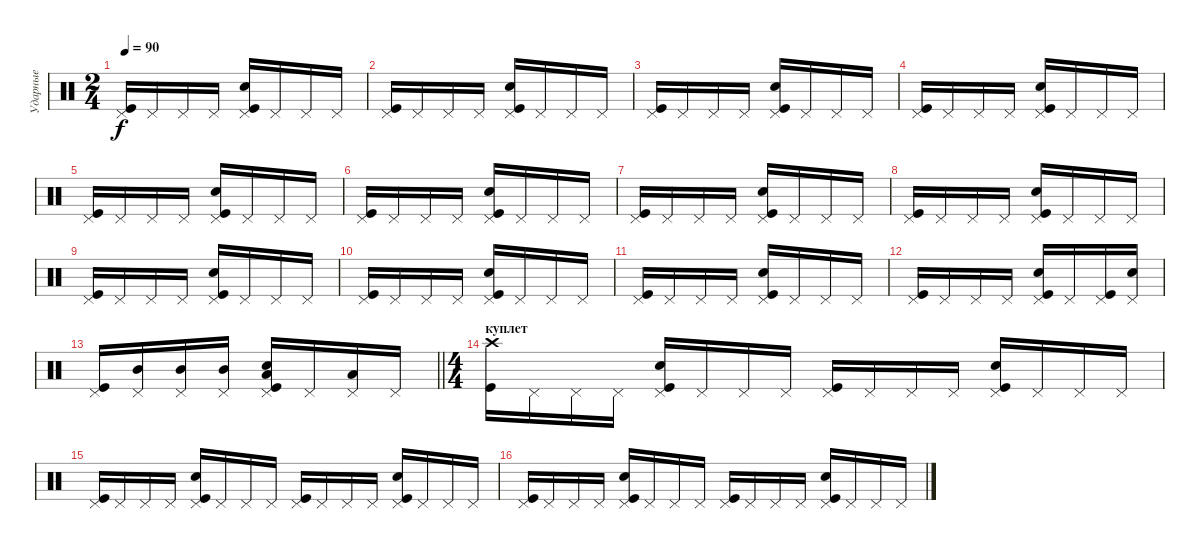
\track ("Ударные" "Ударные") {instrument percussion}
\staff {score}
\articulation defaults
\ts (2 4)
\tempo 90
\clef neutral
\ks c
("Pedal Hi-Hat (hit)" "Kick (hit)").16{dy f} "Pedal Hi-Hat (hit)".16 "Pedal Hi-Hat (hit)".16 "Pedal Hi-Hat (hit)".16 ("Pedal Hi-Hat (hit)" "Kick (hit)" "Snare (hit) 2").16 "Pedal Hi-Hat (hit)".16 "Pedal Hi-Hat (hit)".16 "Pedal Hi-Hat (hit)".16 |
("Pedal Hi-Hat (hit)" "Kick (hit)").16 "Pedal Hi-Hat (hit)".16 "Pedal Hi-Hat (hit)".16 "Pedal Hi-Hat (hit)".16 ("Pedal Hi-Hat (hit)" "Kick (hit)" "Snare (hit) 2").16 "Pedal Hi-Hat (hit)".16 "Pedal Hi-Hat (hit)".16 "Pedal Hi-Hat (hit)".16 |
("Pedal Hi-Hat (hit)" "Kick (hit)").16 "Pedal Hi-Hat (hit)".16 "Pedal Hi-Hat (hit)".16 "Pedal Hi-Hat (hit)".16 ("Pedal Hi-Hat (hit)" "Kick (hit)" "Snare (hit) 2").16 "Pedal Hi-Hat (hit)".16 "Pedal Hi-Hat (hit)".16 "Pedal Hi-Hat (hit)".16 |
("Pedal Hi-Hat (hit)" "Kick (hit)").16 "Pedal Hi-Hat (hit)".16 "Pedal Hi-Hat (hit)".16 "Pedal Hi-Hat (hit)".16 ("Pedal Hi-Hat (hit)" "Kick (hit)" "Snare (hit) 2").16 "Pedal Hi-Hat (hit)".16 "Pedal Hi-Hat (hit)".16 "Pedal Hi-Hat (hit)".16 |
("Pedal Hi-Hat (hit)" "Kick (hit)").16 "Pedal Hi-Hat (hit)".16 "Pedal Hi-Hat (hit)".16 "Pedal Hi-Hat (hit)".16 ("Pedal Hi-Hat (hit)" "Kick (hit)" "Snare (hit) 2").16 "Pedal Hi-Hat (hit)".16 "Pedal Hi-Hat (hit)".16 "Pedal Hi-Hat (hit)".16 |
("Pedal Hi-Hat (hit)" "Kick (hit)").16 "Pedal Hi-Hat (hit)".16 "Pedal Hi-Hat (hit)".16 "Pedal Hi-Hat (hit)".16 ("Pedal Hi-Hat (hit)" "Kick (hit)" "Snare (hit) 2").16 "Pedal Hi-Hat (hit)".16 "Pedal Hi-Hat (hit)".16 "Pedal Hi-Hat (hit)".16 |
("Pedal Hi-Hat (hit)" "Kick (hit)").16 "Pedal Hi-Hat (hit)".16 "Pedal Hi-Hat (hit)".16 "Pedal Hi-Hat (hit)".16 ("Pedal Hi-Hat (hit)" "Kick (hit)" "Snare (hit) 2").16 "Pedal Hi-Hat (hit)".16 "Pedal Hi-Hat (hit)".16 "Pedal Hi-Hat (hit)".16 |
("Pedal Hi-Hat (hit)" "Kick (hit)").16 "Pedal Hi-Hat (hit)".16 "Pedal Hi-Hat (hit)".16 "Pedal Hi-Hat (hit)".16 ("Pedal Hi-Hat (hit)" "Kick (hit)" "Snare (hit) 2").16 "Pedal Hi-Hat (hit)".16 "Pedal Hi-Hat (hit)".16 "Pedal Hi-Hat (hit)".16 |
("Pedal Hi-Hat (hit)" "Kick (hit)").16 "Pedal Hi-Hat (hit)".16 "Pedal Hi-Hat (hit)".16 "Pedal Hi-Hat (hit)".16 ("Pedal Hi-Hat (hit)" "Kick (hit)" "Snare (hit) 2").16 "Pedal Hi-Hat (hit)".16 "Pedal Hi-Hat (hit)".16 "Pedal Hi-Hat (hit)".16 |
("Pedal Hi-Hat (hit)" "Kick (hit)").16 "Pedal Hi-Hat (hit)".16 "Pedal Hi-Hat (hit)".16 "Pedal Hi-Hat (hit)".16 ("Pedal Hi-Hat (hit)" "Kick (hit)" "Snare (hit) 2").16 "Pedal Hi-Hat (hit)".16 "Pedal Hi-Hat (hit)".16 "Pedal Hi-Hat (hit)".16 |
("Pedal Hi-Hat (hit)" "Kick (hit)").16 "Pedal Hi-Hat (hit)".16 "Pedal Hi-Hat (hit)".16 "Pedal Hi-Hat (hit)".16 ("Pedal Hi-Hat (hit)" "Kick (hit)" "Snare (hit) 2").16 "Pedal Hi-Hat (hit)".16 "Pedal Hi-Hat (hit)".16 "Pedal Hi-Hat (hit)".16 |
("Pedal Hi-Hat (hit)" "Kick (hit)").16 "Pedal Hi-Hat (hit)".16 "Pedal Hi-Hat (hit)".16 "Pedal Hi-Hat (hit)".16 ("Pedal Hi-Hat (hit)" "Kick (hit)" "Snare (hit) 2").16 "Pedal Hi-Hat (hit)".16 ("Pedal Hi-Hat (hit)" "Kick (hit)").16 ("Pedal Hi-Hat (hit)" "Snare (hit) 2").16 |
\barLineRight lightlight
("Pedal Hi-Hat (hit)" "Kick (hit)").16 ("Pedal Hi-Hat (hit)" "Mid Tom (hit)").16 ("Pedal Hi-Hat (hit)" "Mid Tom (hit)").16 ("Pedal Hi-Hat (hit)" "Mid Tom (hit)").16 ("Pedal Hi-Hat (hit)" "Kick (hit)" "Snare (hit) 2" "Low Tom (hit)").16 "Pedal Hi-Hat (hit)".16 ("Pedal Hi-Hat (hit)" "Low Tom (hit)").16 "Pedal Hi-Hat (hit)".16 |
\ts (4 4)
\section ("" "куплет")
("Crash high (hit)" "Kick (hit)").16 "Pedal Hi-Hat (hit)".16 "Pedal Hi-Hat (hit)".16 "Pedal Hi-Hat (hit)".16 ("Pedal Hi-Hat (hit)" "Kick (hit)" "Snare (hit) 2").16 "Pedal Hi-Hat (hit)".16 "Pedal Hi-Hat (hit)".16 "Pedal Hi-Hat (hit)".16 ("Pedal Hi-Hat (hit)" "Kick (hit)").16 "Pedal Hi-Hat (hit)".16 "Pedal Hi-Hat (hit)".16 "Pedal Hi-Hat (hit)".16 ("Pedal Hi-Hat (hit)" "Kick (hit)" "Snare (hit) 2").16 "Pedal Hi-Hat (hit)".16 "Pedal Hi-Hat (hit)".16 "Pedal Hi-Hat (hit)".16 |
("Pedal Hi-Hat (hit)" "Kick (hit)").16 "Pedal Hi-Hat (hit)".16 "Pedal Hi-Hat (hit)".16 "Pedal Hi-Hat (hit)".16 ("Pedal Hi-Hat (hit)" "Kick (hit)" "Snare (hit) 2").16 "Pedal Hi-Hat (hit)".16 "Pedal Hi-Hat (hit)".16 "Pedal Hi-Hat (hit)".16 ("Pedal Hi-Hat (hit)" "Kick (hit)").16 "Pedal Hi-Hat (hit)".16 "Pedal Hi-Hat (hit)".16 "Pedal Hi-Hat (hit)".16 ("Pedal Hi-Hat (hit)" "Kick (hit)" "Snare (hit) 2").16 "Pedal Hi-Hat (hit)".16 "Pedal Hi-Hat (hit)".16 "Pedal Hi-Hat (hit)".16 |
("Pedal Hi-Hat (hit)" "Kick (hit)").16 "Pedal Hi-Hat (hit)".16 "Pedal Hi-Hat (hit)".16 "Pedal Hi-Hat (hit)".16 ("Pedal Hi-Hat (hit)" "Kick (hit)" "Snare (hit) 2").16 "Pedal Hi-Hat (hit)".16 "Pedal Hi-Hat (hit)".16 "Pedal Hi-Hat (hit)".16 ("Pedal Hi-Hat (hit)" "Kick (hit)").16 "Pedal Hi-Hat (hit)".16 "Pedal Hi-Hat (hit)".16 "Pedal Hi-Hat (hit)".16 ("Pedal Hi-Hat (hit)" "Kick (hit)" "Snare (hit) 2").16 "Pedal Hi-Hat (hit)".16 "Pedal Hi-Hat (hit)".16 "Pedal Hi-Hat (hit)".16
